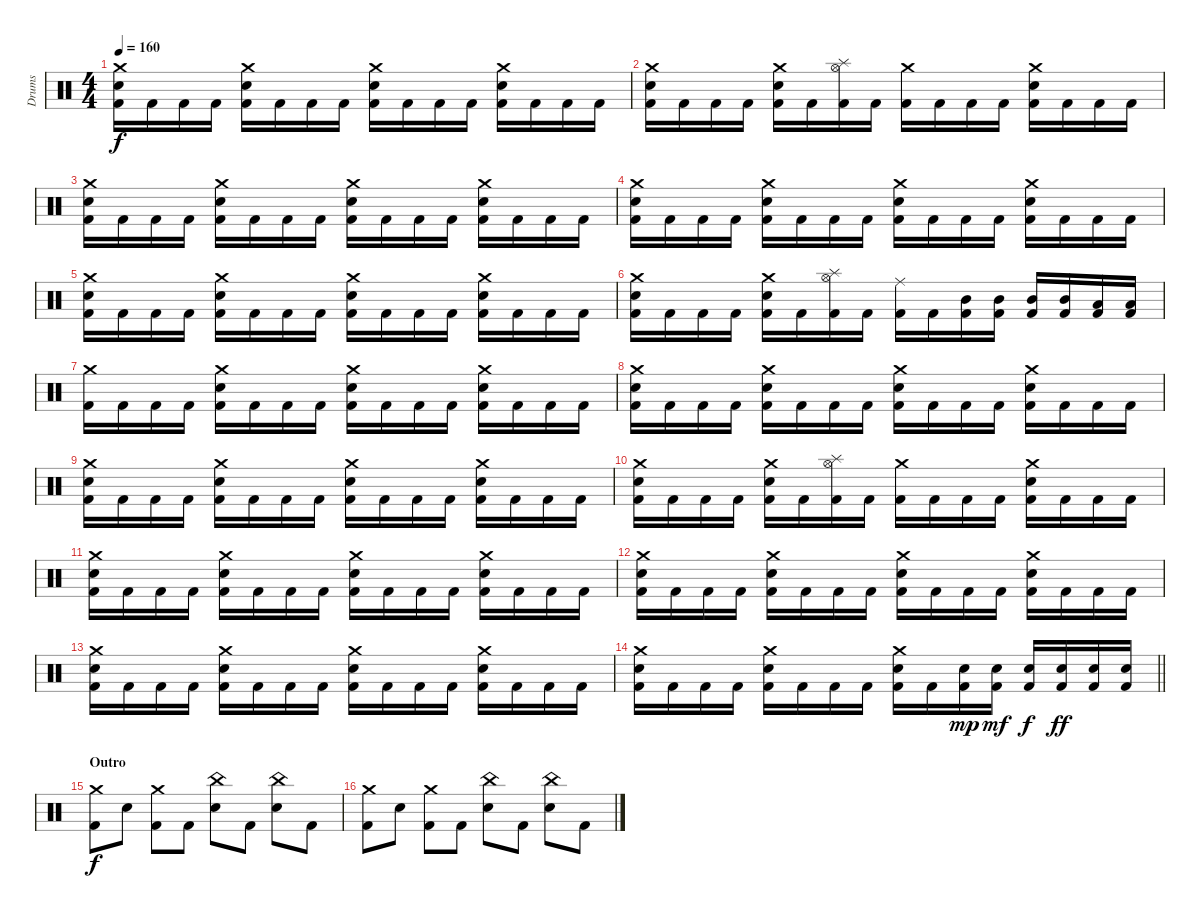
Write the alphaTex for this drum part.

\track ("Drums" "Drums") {instrument percussion}
\staff {score}
\articulation defaults
\ts (4 4)
\tempo 160
\clef neutral
\ks c
("Crash medium (hit)" "Snare (hit) 2" "Kick (hit) 2").16{dy f} "Kick (hit) 2".16 "Kick (hit) 2".16 "Kick (hit) 2".16 ("Crash medium (hit)" "Snare (hit) 2" "Kick (hit) 2").16 "Kick (hit) 2".16 "Kick (hit) 2".16 "Kick (hit) 2".16 ("Crash medium (hit)" "Snare (hit) 2" "Kick (hit) 2").16 "Kick (hit) 2".16 "Kick (hit) 2".16 "Kick (hit) 2".16 ("Crash medium (hit)" "Snare (hit) 2" "Kick (hit) 2").16 "Kick (hit) 2".16 "Kick (hit) 2".16 "Kick (hit) 2".16 |
("Crash medium (hit)" "Snare (hit) 2" "Kick (hit) 2").16 "Kick (hit) 2".16 "Kick (hit) 2".16 "Kick (hit) 2".16 ("Crash medium (hit)" "Snare (hit) 2" "Kick (hit) 2").16 "Kick (hit) 2".16 ("Splash (hit)" "Hi-Hat (open)" "Kick (hit) 2").16 "Kick (hit) 2".16 ("Crash medium (hit)" "Kick (hit) 2").16 "Kick (hit) 2".16 "Kick (hit) 2".16 "Kick (hit) 2".16 ("Crash medium (hit)" "Snare (hit) 2" "Kick (hit) 2").16 "Kick (hit) 2".16 "Kick (hit) 2".16 "Kick (hit) 2".16 |
("Crash medium (hit)" "Snare (hit) 2" "Kick (hit) 2").16 "Kick (hit) 2".16 "Kick (hit) 2".16 "Kick (hit) 2".16 ("Crash medium (hit)" "Snare (hit) 2" "Kick (hit) 2").16 "Kick (hit) 2".16 "Kick (hit) 2".16 "Kick (hit) 2".16 ("Crash medium (hit)" "Snare (hit) 2" "Kick (hit) 2").16 "Kick (hit) 2".16 "Kick (hit) 2".16 "Kick (hit) 2".16 ("Crash medium (hit)" "Snare (hit) 2" "Kick (hit) 2").16 "Kick (hit) 2".16 "Kick (hit) 2".16 "Kick (hit) 2".16 |
("Crash medium (hit)" "Snare (hit) 2" "Kick (hit) 2").16 "Kick (hit) 2".16 "Kick (hit) 2".16 "Kick (hit) 2".16 ("Crash medium (hit)" "Snare (hit) 2" "Kick (hit) 2").16 "Kick (hit) 2".16 "Kick (hit) 2".16 "Kick (hit) 2".16 ("Crash medium (hit)" "Snare (hit) 2" "Kick (hit) 2").16 "Kick (hit) 2".16 "Kick (hit) 2".16 "Kick (hit) 2".16 ("Crash medium (hit)" "Snare (hit) 2" "Kick (hit) 2").16 "Kick (hit) 2".16 "Kick (hit) 2".16 "Kick (hit) 2".16 |
("Crash medium (hit)" "Snare (hit) 2" "Kick (hit) 2").16 "Kick (hit) 2".16 "Kick (hit) 2".16 "Kick (hit) 2".16 ("Crash medium (hit)" "Snare (hit) 2" "Kick (hit) 2").16 "Kick (hit) 2".16 "Kick (hit) 2".16 "Kick (hit) 2".16 ("Crash medium (hit)" "Snare (hit) 2" "Kick (hit) 2").16 "Kick (hit) 2".16 "Kick (hit) 2".16 "Kick (hit) 2".16 ("Crash medium (hit)" "Snare (hit) 2" "Kick (hit) 2").16 "Kick (hit) 2".16 "Kick (hit) 2".16 "Kick (hit) 2".16 |
("Crash medium (hit)" "Snare (hit) 2" "Kick (hit) 2").16 "Kick (hit) 2".16 "Kick (hit) 2".16 "Kick (hit) 2".16 ("Crash medium (hit)" "Snare (hit) 2" "Kick (hit) 2").16 "Kick (hit) 2".16 ("Splash (hit)" "Hi-Hat (open)" "Kick (hit) 2").16 "Kick (hit) 2".16 ("Ride (middle)" "Kick (hit) 2").16 "Kick (hit) 2".16 ("Mid Tom (hit)" "Kick (hit) 2").16 ("Mid Tom (hit)" "Kick (hit) 2").16 ("Mid Tom (hit)" "Kick (hit) 2").16 ("Mid Tom (hit)" "Kick (hit) 2").16 ("Low Tom (hit)" "Kick (hit) 2").16 ("Low Tom (hit)" "Kick (hit) 2").16 |
("Crash medium (hit)" "Kick (hit) 2").16 "Kick (hit) 2".16 "Kick (hit) 2".16 "Kick (hit) 2".16 ("Crash medium (hit)" "Snare (hit) 2" "Kick (hit) 2").16 "Kick (hit) 2".16 "Kick (hit) 2".16 "Kick (hit) 2".16 ("Crash medium (hit)" "Snare (hit) 2" "Kick (hit) 2").16 "Kick (hit) 2".16 "Kick (hit) 2".16 "Kick (hit) 2".16 ("Crash medium (hit)" "Snare (hit) 2" "Kick (hit) 2").16 "Kick (hit) 2".16 "Kick (hit) 2".16 "Kick (hit) 2".16 |
("Crash medium (hit)" "Snare (hit) 2" "Kick (hit) 2").16 "Kick (hit) 2".16 "Kick (hit) 2".16 "Kick (hit) 2".16 ("Crash medium (hit)" "Snare (hit) 2" "Kick (hit) 2").16 "Kick (hit) 2".16 "Kick (hit) 2".16 "Kick (hit) 2".16 ("Crash medium (hit)" "Snare (hit) 2" "Kick (hit) 2").16 "Kick (hit) 2".16 "Kick (hit) 2".16 "Kick (hit) 2".16 ("Crash medium (hit)" "Snare (hit) 2" "Kick (hit) 2").16 "Kick (hit) 2".16 "Kick (hit) 2".16 "Kick (hit) 2".16 |
("Crash medium (hit)" "Snare (hit) 2" "Kick (hit) 2").16 "Kick (hit) 2".16 "Kick (hit) 2".16 "Kick (hit) 2".16 ("Crash medium (hit)" "Snare (hit) 2" "Kick (hit) 2").16 "Kick (hit) 2".16 "Kick (hit) 2".16 "Kick (hit) 2".16 ("Crash medium (hit)" "Snare (hit) 2" "Kick (hit) 2").16 "Kick (hit) 2".16 "Kick (hit) 2".16 "Kick (hit) 2".16 ("Crash medium (hit)" "Snare (hit) 2" "Kick (hit) 2").16 "Kick (hit) 2".16 "Kick (hit) 2".16 "Kick (hit) 2".16 |
("Crash medium (hit)" "Snare (hit) 2" "Kick (hit) 2").16 "Kick (hit) 2".16 "Kick (hit) 2".16 "Kick (hit) 2".16 ("Crash medium (hit)" "Snare (hit) 2" "Kick (hit) 2").16 "Kick (hit) 2".16 ("Splash (hit)" "Hi-Hat (open)" "Kick (hit) 2").16 "Kick (hit) 2".16 ("Crash medium (hit)" "Kick (hit) 2").16 "Kick (hit) 2".16 "Kick (hit) 2".16 "Kick (hit) 2".16 ("Crash medium (hit)" "Snare (hit) 2" "Kick (hit) 2").16 "Kick (hit) 2".16 "Kick (hit) 2".16 "Kick (hit) 2".16 |
("Crash medium (hit)" "Snare (hit) 2" "Kick (hit) 2").16 "Kick (hit) 2".16 "Kick (hit) 2".16 "Kick (hit) 2".16 ("Crash medium (hit)" "Snare (hit) 2" "Kick (hit) 2").16 "Kick (hit) 2".16 "Kick (hit) 2".16 "Kick (hit) 2".16 ("Crash medium (hit)" "Snare (hit) 2" "Kick (hit) 2").16 "Kick (hit) 2".16 "Kick (hit) 2".16 "Kick (hit) 2".16 ("Crash medium (hit)" "Snare (hit) 2" "Kick (hit) 2").16 "Kick (hit) 2".16 "Kick (hit) 2".16 "Kick (hit) 2".16 |
("Crash medium (hit)" "Snare (hit) 2" "Kick (hit) 2").16 "Kick (hit) 2".16 "Kick (hit) 2".16 "Kick (hit) 2".16 ("Crash medium (hit)" "Snare (hit) 2" "Kick (hit) 2").16 "Kick (hit) 2".16 "Kick (hit) 2".16 "Kick (hit) 2".16 ("Crash medium (hit)" "Snare (hit) 2" "Kick (hit) 2").16 "Kick (hit) 2".16 "Kick (hit) 2".16 "Kick (hit) 2".16 ("Crash medium (hit)" "Snare (hit) 2" "Kick (hit) 2").16 "Kick (hit) 2".16 "Kick (hit) 2".16 "Kick (hit) 2".16 |
("Crash medium (hit)" "Snare (hit) 2" "Kick (hit) 2").16 "Kick (hit) 2".16 "Kick (hit) 2".16 "Kick (hit) 2".16 ("Crash medium (hit)" "Snare (hit) 2" "Kick (hit) 2").16 "Kick (hit) 2".16 "Kick (hit) 2".16 "Kick (hit) 2".16 ("Crash medium (hit)" "Snare (hit) 2" "Kick (hit) 2").16 "Kick (hit) 2".16 "Kick (hit) 2".16 "Kick (hit) 2".16 ("Crash medium (hit)" "Snare (hit) 2" "Kick (hit) 2").16 "Kick (hit) 2".16 "Kick (hit) 2".16 "Kick (hit) 2".16 |
\barLineRight lightlight
("Crash medium (hit)" "Snare (hit) 2" "Kick (hit) 2").16 "Kick (hit) 2".16 "Kick (hit) 2".16 "Kick (hit) 2".16 ("Crash medium (hit)" "Snare (hit) 2" "Kick (hit) 2").16 "Kick (hit) 2".16 "Kick (hit) 2".16 "Kick (hit) 2".16 ("Crash medium (hit)" "Snare (hit) 2" "Kick (hit) 2").16 "Kick (hit) 2".16 ("Snare (hit) 2" "Kick (hit) 2").16{dy mp} ("Snare (hit) 2" "Kick (hit) 2").16{dy mf} ("Snare (hit) 2" "Kick (hit) 2").16{dy f} ("Snare (hit) 2" "Kick (hit) 2").16{dy ff} ("Snare (hit) 2" "Kick (hit) 2").16 ("Snare (hit) 2" "Kick (hit) 2").16 |
\section ("" "Outro")
("Crash medium (hit)" "Kick (hit) 2").8{dy f} "Snare (hit) 2".8 ("Crash medium (hit)" "Kick (hit) 2").8 "Kick (hit) 2".8 ("China (hit)" "Snare (hit) 2").8 "Kick (hit) 2".8 ("China (hit)" "Snare (hit) 2").8 "Kick (hit) 2".8 |
("Crash medium (hit)" "Kick (hit) 2").8 "Snare (hit) 2".8 ("Crash medium (hit)" "Kick (hit) 2").8 "Kick (hit) 2".8 ("China (hit)" "Snare (hit) 2").8 "Kick (hit) 2".8 ("China (hit)" "Snare (hit) 2").8 "Kick (hit) 2".8
